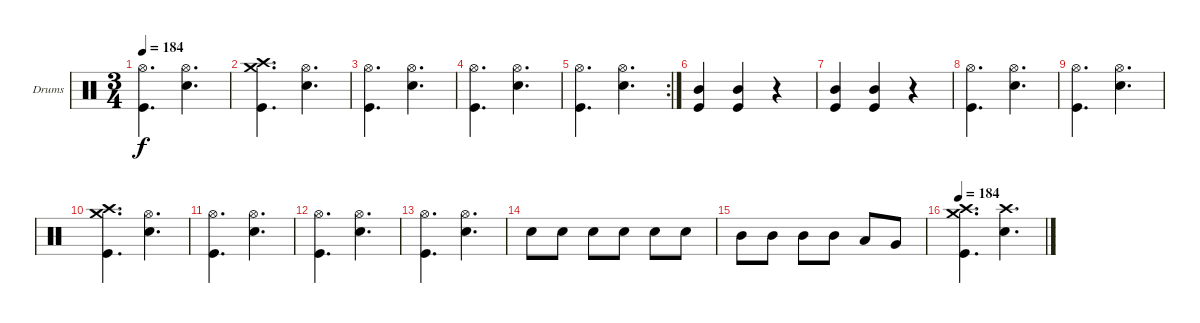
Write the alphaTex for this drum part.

\bracketExtendMode groupsimilarinstruments
\firstSystemTrackNameOrientation horizontal
\otherSystemsTrackNameOrientation horizontal
\track ("Drumkit" "Drums") {instrument percussion}
\staff {score}
\articulation defaults
\ts (3 4)
\tempo 184
\clef neutral
\ks c
("Hi-Hat (open)" "Kick (hit)").4{d dy f} ("Hi-Hat (open)" "Snare (hit) 2").4{d} |
("Crash high (hit)" "Crash medium (hit)" "Kick (hit)").4{d} ("Hi-Hat (open)" "Snare (hit) 2").4{d} |
("Hi-Hat (open)" "Kick (hit)").4{d} ("Hi-Hat (open)" "Snare (hit) 2").4{d} |
("Hi-Hat (open)" "Kick (hit)").4{d} ("Hi-Hat (open)" "Snare (hit) 2").4{d} |
\rc 2
("Hi-Hat (open)" "Kick (hit)").4{d} ("Hi-Hat (open)" "Snare (hit) 2").4{d} |
("Mid Tom (hit)" "Kick (hit)").4 ("Mid Tom (hit)" "Kick (hit)").4 r.4 |
("Mid Tom (hit)" "Kick (hit)").4 ("Mid Tom (hit)" "Kick (hit)").4 r.4 |
("Hi-Hat (open)" "Kick (hit)").4{d} ("Hi-Hat (open)" "Snare (hit) 2").4{d} |
("Hi-Hat (open)" "Kick (hit)").4{d} ("Hi-Hat (open)" "Snare (hit) 2").4{d} |
("Crash high (hit)" "Crash medium (hit)" "Kick (hit)").4{d} ("Hi-Hat (open)" "Snare (hit) 2").4{d} |
("Hi-Hat (open)" "Kick (hit)").4{d} ("Hi-Hat (open)" "Snare (hit) 2").4{d} |
("Hi-Hat (open)" "Kick (hit)").4{d} ("Hi-Hat (open)" "Snare (hit) 2").4{d} |
("Hi-Hat (open)" "Kick (hit)").4{d} ("Hi-Hat (open)" "Snare (hit) 2").4{d} |
"Snare (hit) 2".8 "Snare (hit) 2".8 "Snare (hit) 2".8 "Snare (hit) 2".8 "Snare (hit) 2".8 "Snare (hit) 2".8 |
"Mid Tom (hit)".8 "Mid Tom (hit)".8 "Mid Tom (hit)".8 "Mid Tom (hit)".8 "Low Tom (hit)".8 "Very Low Tom (hit)".8 |
\tempo 184
("Crash high (hit)" "Crash medium (hit)" "Kick (hit)").4{d} ("Crash high (hit)" "Snare (hit) 2").4{d}
